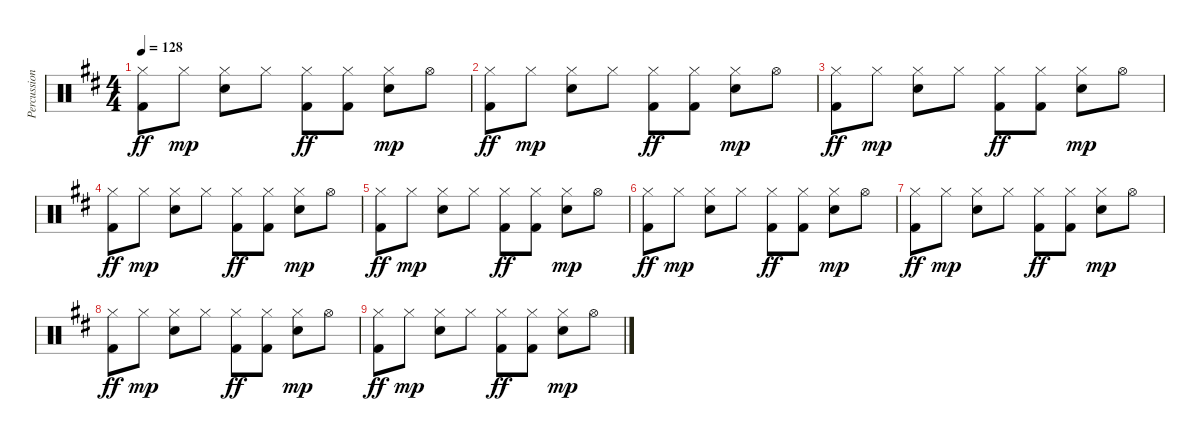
\track ("Percussion" "Percussion") {instrument percussion}
\staff {score}
\articulation defaults
\ts (4 4)
\tempo 128
\clef neutral
\ks d
("Hi-Hat (closed)" "Kick (hit) 2").8{dy ff} "Hi-Hat (closed)".8{dy mp} ("Hi-Hat (closed)" "Electric Snare (hit)").8 "Hi-Hat (closed)".8 ("Hi-Hat (closed)" "Kick (hit) 2").8{dy ff} ("Hi-Hat (closed)" "Kick (hit) 2").8 ("Hi-Hat (closed)" "Electric Snare (hit)").8{dy mp} "Hi-Hat (open)".8 |
("Hi-Hat (closed)" "Kick (hit) 2").8{dy ff} "Hi-Hat (closed)".8{dy mp} ("Hi-Hat (closed)" "Electric Snare (hit)").8 "Hi-Hat (closed)".8 ("Hi-Hat (closed)" "Kick (hit) 2").8{dy ff} ("Hi-Hat (closed)" "Kick (hit) 2").8 ("Hi-Hat (closed)" "Electric Snare (hit)").8{dy mp} "Hi-Hat (open)".8 |
("Hi-Hat (closed)" "Kick (hit) 2").8{dy ff} "Hi-Hat (closed)".8{dy mp} ("Hi-Hat (closed)" "Electric Snare (hit)").8 "Hi-Hat (closed)".8 ("Hi-Hat (closed)" "Kick (hit) 2").8{dy ff} ("Hi-Hat (closed)" "Kick (hit) 2").8 ("Hi-Hat (closed)" "Electric Snare (hit)").8{dy mp} "Hi-Hat (open)".8 |
("Hi-Hat (closed)" "Kick (hit) 2").8{dy ff} "Hi-Hat (closed)".8{dy mp} ("Hi-Hat (closed)" "Electric Snare (hit)").8 "Hi-Hat (closed)".8 ("Hi-Hat (closed)" "Kick (hit) 2").8{dy ff} ("Hi-Hat (closed)" "Kick (hit) 2").8 ("Hi-Hat (closed)" "Electric Snare (hit)").8{dy mp} "Hi-Hat (open)".8 |
("Hi-Hat (closed)" "Kick (hit) 2").8{dy ff} "Hi-Hat (closed)".8{dy mp} ("Hi-Hat (closed)" "Electric Snare (hit)").8 "Hi-Hat (closed)".8 ("Hi-Hat (closed)" "Kick (hit) 2").8{dy ff} ("Hi-Hat (closed)" "Kick (hit) 2").8 ("Hi-Hat (closed)" "Electric Snare (hit)").8{dy mp} "Hi-Hat (open)".8 |
("Hi-Hat (closed)" "Kick (hit) 2").8{dy ff} "Hi-Hat (closed)".8{dy mp} ("Hi-Hat (closed)" "Electric Snare (hit)").8 "Hi-Hat (closed)".8 ("Hi-Hat (closed)" "Kick (hit) 2").8{dy ff} ("Hi-Hat (closed)" "Kick (hit) 2").8 ("Hi-Hat (closed)" "Electric Snare (hit)").8{dy mp} "Hi-Hat (open)".8 |
("Hi-Hat (closed)" "Kick (hit) 2").8{dy ff} "Hi-Hat (closed)".8{dy mp} ("Hi-Hat (closed)" "Electric Snare (hit)").8 "Hi-Hat (closed)".8 ("Hi-Hat (closed)" "Kick (hit) 2").8{dy ff} ("Hi-Hat (closed)" "Kick (hit) 2").8 ("Hi-Hat (closed)" "Electric Snare (hit)").8{dy mp} "Hi-Hat (open)".8 |
("Hi-Hat (closed)" "Kick (hit) 2").8{dy ff} "Hi-Hat (closed)".8{dy mp} ("Hi-Hat (closed)" "Electric Snare (hit)").8 "Hi-Hat (closed)".8 ("Hi-Hat (closed)" "Kick (hit) 2").8{dy ff} ("Hi-Hat (closed)" "Kick (hit) 2").8 ("Hi-Hat (closed)" "Electric Snare (hit)").8{dy mp} "Hi-Hat (open)".8 |
("Hi-Hat (closed)" "Kick (hit) 2").8{dy ff} "Hi-Hat (closed)".8{dy mp} ("Hi-Hat (closed)" "Electric Snare (hit)").8 "Hi-Hat (closed)".8 ("Hi-Hat (closed)" "Kick (hit) 2").8{dy ff} ("Hi-Hat (closed)" "Kick (hit) 2").8 ("Hi-Hat (closed)" "Electric Snare (hit)").8{dy mp} "Hi-Hat (open)".8
